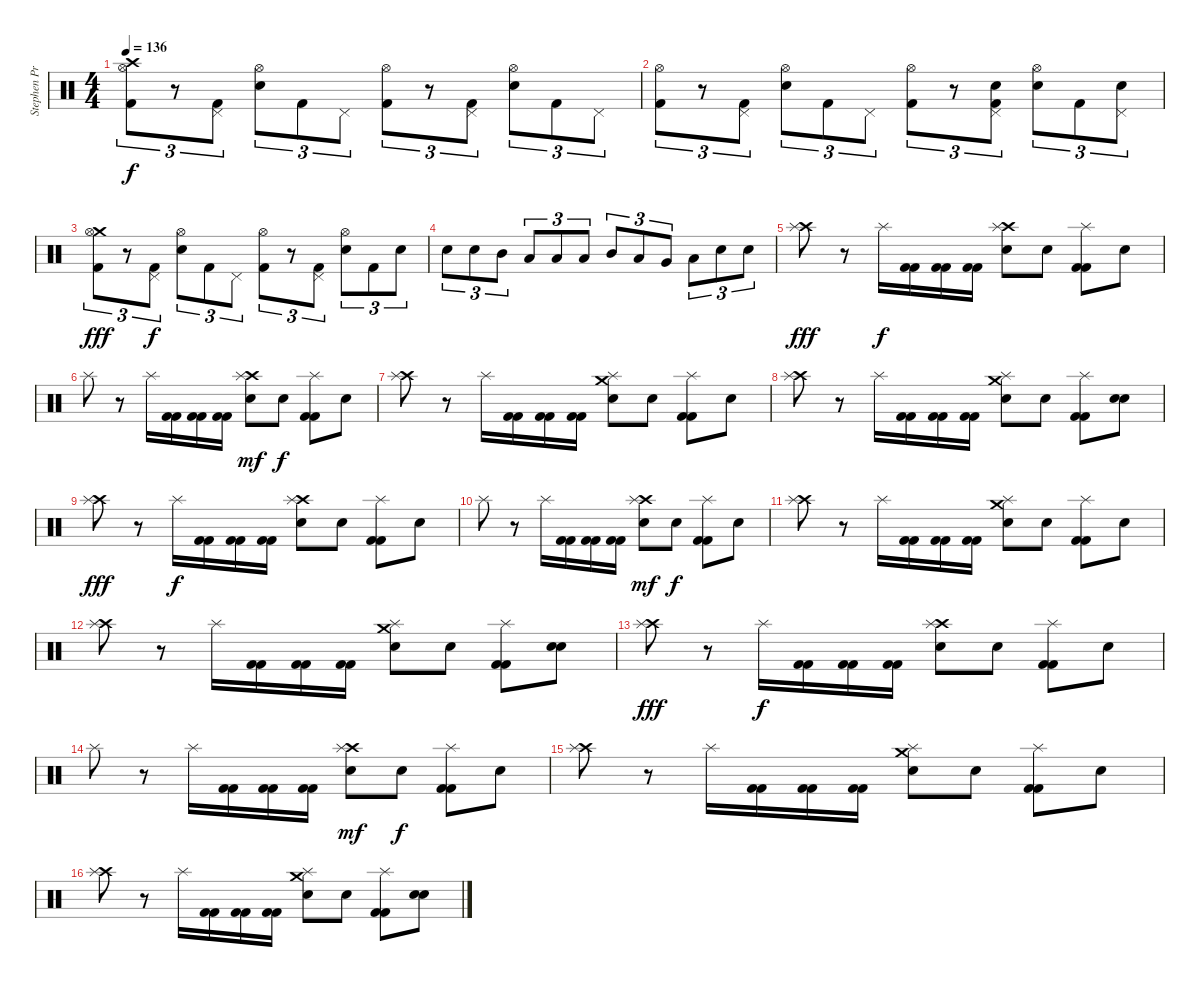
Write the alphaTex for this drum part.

\track ("Stephen Priestly  (Drums)" "Stephen Pr") {instrument percussion}
\staff {score}
\articulation defaults
\ts (4 4)
\tempo 136
\clef neutral
\ks c
("Crash high (hit)" "Hi-Hat (open)" "Kick (hit) 2").8{tu (3 2) dy f} r.8{tu (3 2)} ("Pedal Hi-Hat (hit)" "Kick (hit) 2").8{tu (3 2)} ("Hi-Hat (open)" "Electric Snare (hit)").8{tu (3 2)} "Kick (hit) 2".8{tu (3 2)} "Pedal Hi-Hat (hit)".8{tu (3 2)} ("Hi-Hat (open)" "Kick (hit) 2").8{tu (3 2)} r.8{tu (3 2)} ("Pedal Hi-Hat (hit)" "Kick (hit) 2").8{tu (3 2)} ("Hi-Hat (open)" "Electric Snare (hit)").8{tu (3 2)} "Kick (hit) 2".8{tu (3 2)} "Pedal Hi-Hat (hit)".8{tu (3 2)} |
("Hi-Hat (open)" "Kick (hit) 2").8{tu (3 2)} r.8{tu (3 2)} ("Pedal Hi-Hat (hit)" "Kick (hit) 2").8{tu (3 2)} ("Hi-Hat (open)" "Electric Snare (hit)").8{tu (3 2)} "Kick (hit) 2".8{tu (3 2)} "Pedal Hi-Hat (hit)".8{tu (3 2)} ("Hi-Hat (open)" "Kick (hit) 2").8{tu (3 2)} r.8{tu (3 2)} ("Pedal Hi-Hat (hit)" "Electric Snare (hit)" "Kick (hit) 2").8{tu (3 2)} ("Hi-Hat (open)" "Electric Snare (hit)").8{tu (3 2)} "Kick (hit) 2".8{tu (3 2)} ("Pedal Hi-Hat (hit)" "Electric Snare (hit)").8{tu (3 2)} |
("Crash medium (hit)" "Hi-Hat (open)" "Kick (hit) 2").8{tu (3 2) dy fff} r.8{tu (3 2)} ("Pedal Hi-Hat (hit)" "Kick (hit) 2").8{tu (3 2) dy f} ("Hi-Hat (open)" "Electric Snare (hit)").8{tu (3 2)} "Kick (hit) 2".8{tu (3 2)} "Pedal Hi-Hat (hit)".8{tu (3 2)} ("Hi-Hat (open)" "Kick (hit) 2").8{tu (3 2)} r.8{tu (3 2)} ("Pedal Hi-Hat (hit)" "Kick (hit) 2").8{tu (3 2)} ("Hi-Hat (open)" "Electric Snare (hit)").8{tu (3 2)} "Kick (hit) 2".8{tu (3 2)} "Electric Snare (hit)".8{tu (3 2)} |
"Electric Snare (hit)".8{tu (3 2)} "Electric Snare (hit)".8{tu (3 2)} "Mid Tom (hit)".8{tu (3 2)} "Low Tom (hit)".8{tu (3 2)} "Low Tom (hit)".8{tu (3 2)} "Low Tom (hit)".8{tu (3 2)} "Mid Tom (hit)".8{tu (3 2)} "Low Tom (hit)".8{tu (3 2)} "Very Low Tom (hit)".8{tu (3 2)} "Low Floor Tom (hit)".8{tu (3 2)} "Electric Snare (hit)".8{tu (3 2)} "Electric Snare (hit)".8{tu (3 2)} |
("Crash high (hit)" "Splash (hit)").8{dy fff} r.8 "Splash (hit)".16{dy f} ("Kick (hit) 2" "Kick (hit) 2").16 ("Kick (hit) 2" "Kick (hit) 2").16 ("Kick (hit) 2" "Kick (hit) 2").16 ("Crash high (hit)" "Splash (hit)" "Electric Snare (hit)").8 "Snare (hit)".8 ("Splash (hit)" "Kick (hit) 2" "Kick (hit) 2").8 "Snare (hit)".8 |
"Splash (hit)".8 r.8 "Splash (hit)".16 ("Kick (hit) 2" "Kick (hit) 2").16 ("Kick (hit) 2" "Kick (hit) 2").16 ("Kick (hit) 2" "Kick (hit) 2").16 ("Crash high (hit)" "Splash (hit)" "Electric Snare (hit)").8{dy mf} "Snare (hit)".8{dy f} ("Splash (hit)" "Kick (hit) 2" "Kick (hit) 2").8 "Snare (hit)".8 |
("Crash high (hit)" "Splash (hit)").8 r.8 "Splash (hit)".16 ("Kick (hit) 2" "Kick (hit) 2").16 ("Kick (hit) 2" "Kick (hit) 2").16 ("Kick (hit) 2" "Kick (hit) 2").16 ("Crash medium (hit)" "Splash (hit)" "Electric Snare (hit)").8 "Snare (hit)".8 ("Splash (hit)" "Kick (hit) 2" "Kick (hit) 2").8 "Snare (hit)".8 |
("Crash high (hit)" "Splash (hit)").8 r.8 "Splash (hit)".16 ("Kick (hit) 2" "Kick (hit) 2").16 ("Kick (hit) 2" "Kick (hit) 2").16 ("Kick (hit) 2" "Kick (hit) 2").16 ("Crash medium (hit)" "Splash (hit)" "Electric Snare (hit)").8 "Snare (hit)".8 ("Splash (hit)" "Kick (hit) 2" "Kick (hit) 2").8 ("Snare (hit)" "Electric Snare (hit)").8 |
("Crash high (hit)" "Splash (hit)").8{dy fff} r.8 "Splash (hit)".16{dy f} ("Kick (hit) 2" "Kick (hit) 2").16 ("Kick (hit) 2" "Kick (hit) 2").16 ("Kick (hit) 2" "Kick (hit) 2").16 ("Crash high (hit)" "Splash (hit)" "Electric Snare (hit)").8 "Snare (hit)".8 ("Splash (hit)" "Kick (hit) 2" "Kick (hit) 2").8 "Snare (hit)".8 |
"Splash (hit)".8 r.8 "Splash (hit)".16 ("Kick (hit) 2" "Kick (hit) 2").16 ("Kick (hit) 2" "Kick (hit) 2").16 ("Kick (hit) 2" "Kick (hit) 2").16 ("Crash high (hit)" "Splash (hit)" "Electric Snare (hit)").8{dy mf} "Snare (hit)".8{dy f} ("Splash (hit)" "Kick (hit) 2" "Kick (hit) 2").8 "Snare (hit)".8 |
("Crash high (hit)" "Splash (hit)").8 r.8 "Splash (hit)".16 ("Kick (hit) 2" "Kick (hit) 2").16 ("Kick (hit) 2" "Kick (hit) 2").16 ("Kick (hit) 2" "Kick (hit) 2").16 ("Crash medium (hit)" "Splash (hit)" "Electric Snare (hit)").8 "Snare (hit)".8 ("Splash (hit)" "Kick (hit) 2" "Kick (hit) 2").8 "Snare (hit)".8 |
("Crash high (hit)" "Splash (hit)").8 r.8 "Splash (hit)".16 ("Kick (hit) 2" "Kick (hit) 2").16 ("Kick (hit) 2" "Kick (hit) 2").16 ("Kick (hit) 2" "Kick (hit) 2").16 ("Crash medium (hit)" "Splash (hit)" "Electric Snare (hit)").8 "Snare (hit)".8 ("Splash (hit)" "Kick (hit) 2" "Kick (hit) 2").8 ("Snare (hit)" "Electric Snare (hit)").8 |
("Crash high (hit)" "Splash (hit)").8{dy fff} r.8 "Splash (hit)".16{dy f} ("Kick (hit) 2" "Kick (hit) 2").16 ("Kick (hit) 2" "Kick (hit) 2").16 ("Kick (hit) 2" "Kick (hit) 2").16 ("Crash high (hit)" "Splash (hit)" "Electric Snare (hit)").8 "Snare (hit)".8 ("Splash (hit)" "Kick (hit) 2" "Kick (hit) 2").8 "Snare (hit)".8 |
"Splash (hit)".8 r.8 "Splash (hit)".16 ("Kick (hit) 2" "Kick (hit) 2").16 ("Kick (hit) 2" "Kick (hit) 2").16 ("Kick (hit) 2" "Kick (hit) 2").16 ("Crash high (hit)" "Splash (hit)" "Electric Snare (hit)").8{dy mf} "Snare (hit)".8{dy f} ("Splash (hit)" "Kick (hit) 2" "Kick (hit) 2").8 "Snare (hit)".8 |
("Crash high (hit)" "Splash (hit)").8 r.8 "Splash (hit)".16 ("Kick (hit) 2" "Kick (hit) 2").16 ("Kick (hit) 2" "Kick (hit) 2").16 ("Kick (hit) 2" "Kick (hit) 2").16 ("Crash medium (hit)" "Splash (hit)" "Electric Snare (hit)").8 "Snare (hit)".8 ("Splash (hit)" "Kick (hit) 2" "Kick (hit) 2").8 "Snare (hit)".8 |
("Crash high (hit)" "Splash (hit)").8 r.8 "Splash (hit)".16 ("Kick (hit) 2" "Kick (hit) 2").16 ("Kick (hit) 2" "Kick (hit) 2").16 ("Kick (hit) 2" "Kick (hit) 2").16 ("Crash medium (hit)" "Splash (hit)" "Electric Snare (hit)").8 "Snare (hit)".8 ("Splash (hit)" "Kick (hit) 2" "Kick (hit) 2").8 ("Snare (hit)" "Electric Snare (hit)").8
